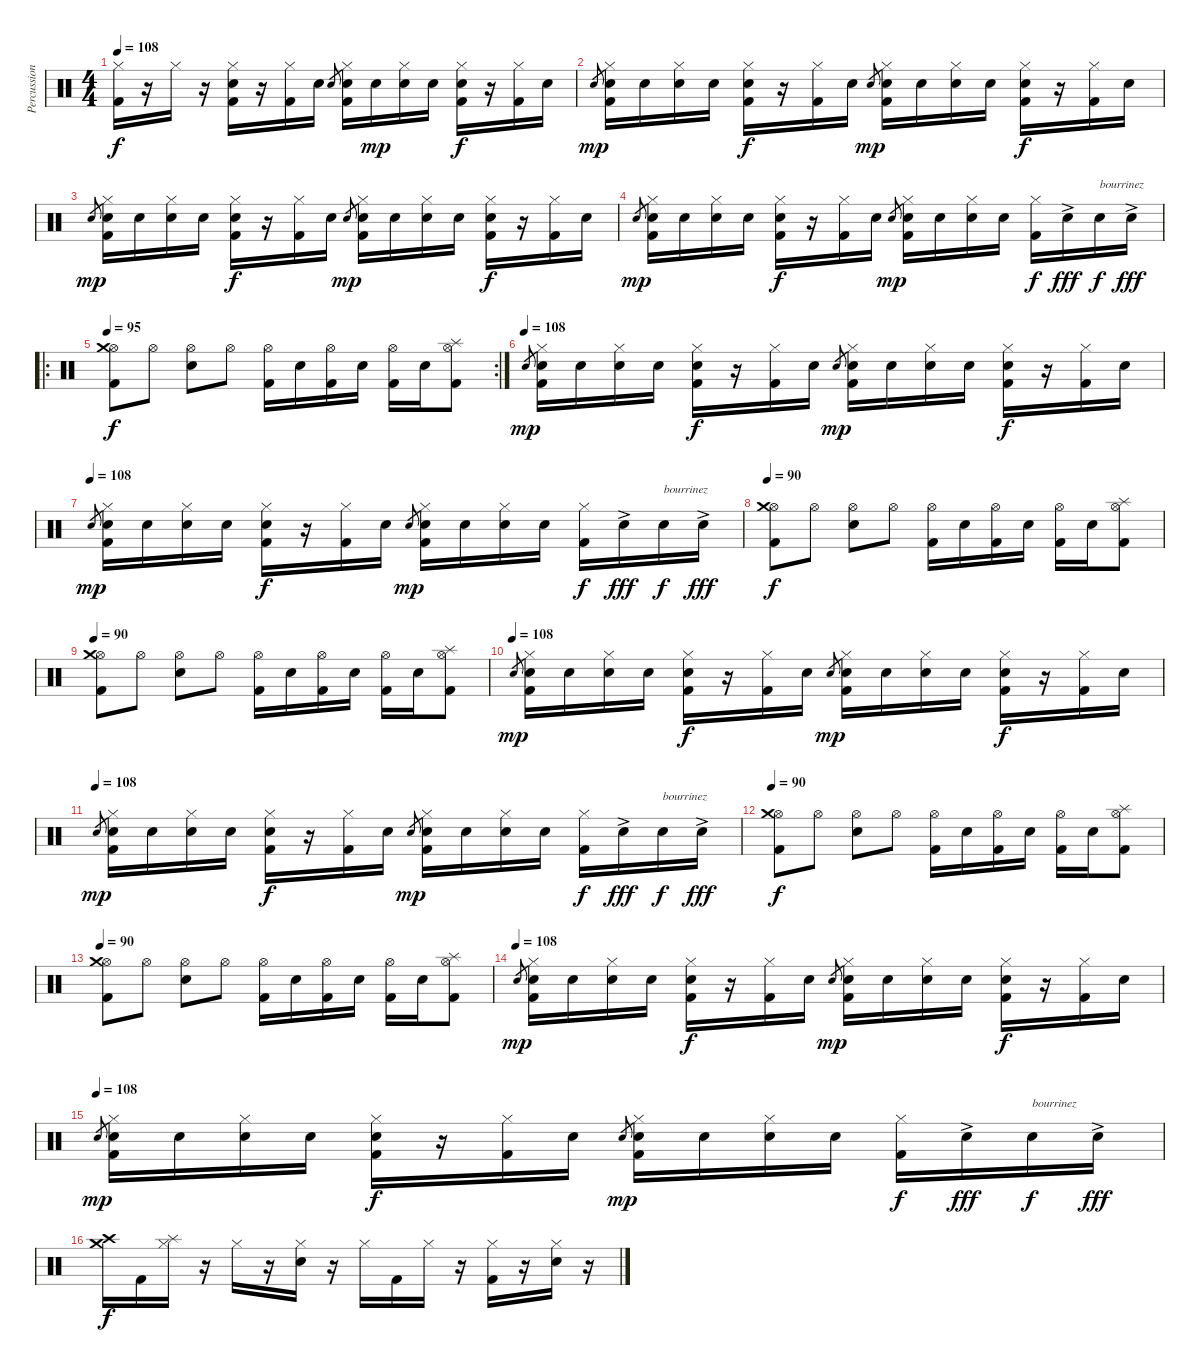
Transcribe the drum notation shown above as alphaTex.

\track ("Percussions" "Percussion") {instrument percussion}
\staff {score}
\articulation defaults
\ts (4 4)
\tempo 108
\clef neutral
\ks c
("Hi-Hat (closed)" "Kick (hit) 2").16{dy f} r.16 "Hi-Hat (closed)".16 r.16 ("Hi-Hat (closed)" "Electric Snare (hit)" "Kick (hit) 2").16 r.16 ("Hi-Hat (closed)" "Kick (hit) 2").16 "Electric Snare (hit)".16 "Electric Snare (hit)".8{gr} ("Hi-Hat (closed)" "Electric Snare (hit)" "Kick (hit) 2").16 "Electric Snare (hit)".16{dy mp} ("Hi-Hat (closed)" "Electric Snare (hit)").16 "Electric Snare (hit)".16 ("Hi-Hat (closed)" "Electric Snare (hit)" "Kick (hit) 2").16{dy f} r.16 ("Hi-Hat (closed)" "Kick (hit) 2").16 "Electric Snare (hit)".16 |
"Electric Snare (hit)".8{gr dy mp} ("Hi-Hat (closed)" "Electric Snare (hit)" "Kick (hit) 2").16 "Electric Snare (hit)".16 ("Hi-Hat (closed)" "Electric Snare (hit)").16 "Electric Snare (hit)".16 ("Hi-Hat (closed)" "Electric Snare (hit)" "Kick (hit) 2").16{dy f} r.16 ("Hi-Hat (closed)" "Kick (hit) 2").16 "Electric Snare (hit)".16 "Electric Snare (hit)".8{gr dy mp} ("Hi-Hat (closed)" "Electric Snare (hit)" "Kick (hit) 2").16 "Electric Snare (hit)".16 ("Hi-Hat (closed)" "Electric Snare (hit)").16 "Electric Snare (hit)".16 ("Hi-Hat (closed)" "Electric Snare (hit)" "Kick (hit) 2").16{dy f} r.16 ("Hi-Hat (closed)" "Kick (hit) 2").16 "Electric Snare (hit)".16 |
"Electric Snare (hit)".8{gr dy mp} ("Hi-Hat (closed)" "Electric Snare (hit)" "Kick (hit) 2").16 "Electric Snare (hit)".16 ("Hi-Hat (closed)" "Electric Snare (hit)").16 "Electric Snare (hit)".16 ("Hi-Hat (closed)" "Electric Snare (hit)" "Kick (hit) 2").16{dy f} r.16 ("Hi-Hat (closed)" "Kick (hit) 2").16 "Electric Snare (hit)".16 "Electric Snare (hit)".8{gr dy mp} ("Hi-Hat (closed)" "Electric Snare (hit)" "Kick (hit) 2").16 "Electric Snare (hit)".16 ("Hi-Hat (closed)" "Electric Snare (hit)").16 "Electric Snare (hit)".16 ("Hi-Hat (closed)" "Electric Snare (hit)" "Kick (hit) 2").16{dy f} r.16 ("Hi-Hat (closed)" "Kick (hit) 2").16 "Electric Snare (hit)".16 |
"Electric Snare (hit)".8{gr dy mp} ("Hi-Hat (closed)" "Electric Snare (hit)" "Kick (hit) 2").16 "Electric Snare (hit)".16 ("Hi-Hat (closed)" "Electric Snare (hit)").16 "Electric Snare (hit)".16 ("Hi-Hat (closed)" "Electric Snare (hit)" "Kick (hit) 2").16{dy f} r.16 ("Hi-Hat (closed)" "Kick (hit) 2").16 "Electric Snare (hit)".16 "Electric Snare (hit)".8{gr dy mp} ("Hi-Hat (closed)" "Electric Snare (hit)" "Kick (hit) 2").16 "Electric Snare (hit)".16 ("Hi-Hat (closed)" "Electric Snare (hit)").16 "Electric Snare (hit)".16 ("Hi-Hat (closed)" "Kick (hit) 2").16{dy f} "Electric Snare (hit)"{ac}.16{dy fff volume 16} "Electric Snare (hit)".16{txt "bourrinez" dy f} "Electric Snare (hit)"{ac}.16{dy fff} |
\ro
\rc 2
\tempo 95
("Hi-Hat (open)" "Crash medium (hit)" "Kick (hit) 2").8{dy f volume 7} "Hi-Hat (open)".8 ("Hi-Hat (open)" "Electric Snare (hit)").8 "Hi-Hat (open)".8 ("Hi-Hat (open)" "Kick (hit) 2").16 "Electric Snare (hit)".16 ("Hi-Hat (open)" "Kick (hit) 2").16 "Electric Snare (hit)".16 ("Hi-Hat (open)" "Kick (hit) 2").16 "Electric Snare (hit)".16 ("Hi-Hat (open)" "Splash (hit)" "Kick (hit) 2").8 |
\tempo (108)
"Electric Snare (hit)".8{gr dy mp} ("Hi-Hat (closed)" "Electric Snare (hit)" "Kick (hit) 2").16 "Electric Snare (hit)".16 ("Hi-Hat (closed)" "Electric Snare (hit)").16 "Electric Snare (hit)".16 ("Hi-Hat (closed)" "Electric Snare (hit)" "Kick (hit) 2").16{dy f} r.16 ("Hi-Hat (closed)" "Kick (hit) 2").16 "Electric Snare (hit)".16 "Electric Snare (hit)".8{gr dy mp} ("Hi-Hat (closed)" "Electric Snare (hit)" "Kick (hit) 2").16 "Electric Snare (hit)".16 ("Hi-Hat (closed)" "Electric Snare (hit)").16 "Electric Snare (hit)".16 ("Hi-Hat (closed)" "Electric Snare (hit)" "Kick (hit) 2").16{dy f} r.16 ("Hi-Hat (closed)" "Kick (hit) 2").16 "Electric Snare (hit)".16 |
\tempo (108)
"Electric Snare (hit)".8{gr dy mp} ("Hi-Hat (closed)" "Electric Snare (hit)" "Kick (hit) 2").16 "Electric Snare (hit)".16 ("Hi-Hat (closed)" "Electric Snare (hit)").16 "Electric Snare (hit)".16 ("Hi-Hat (closed)" "Electric Snare (hit)" "Kick (hit) 2").16{dy f} r.16 ("Hi-Hat (closed)" "Kick (hit) 2").16 "Electric Snare (hit)".16 "Electric Snare (hit)".8{gr dy mp} ("Hi-Hat (closed)" "Electric Snare (hit)" "Kick (hit) 2").16 "Electric Snare (hit)".16 ("Hi-Hat (closed)" "Electric Snare (hit)").16 "Electric Snare (hit)".16 ("Hi-Hat (closed)" "Kick (hit) 2").16{dy f} "Electric Snare (hit)"{ac}.16{dy fff volume 16} "Electric Snare (hit)".16{txt "bourrinez" dy f} "Electric Snare (hit)"{ac}.16{dy fff} |
\tempo 90
("Hi-Hat (open)" "Crash medium (hit)" "Kick (hit) 2").8{dy f volume 7} "Hi-Hat (open)".8 ("Hi-Hat (open)" "Electric Snare (hit)").8 "Hi-Hat (open)".8 ("Hi-Hat (open)" "Kick (hit) 2").16 "Electric Snare (hit)".16 ("Hi-Hat (open)" "Kick (hit) 2").16 "Electric Snare (hit)".16 ("Hi-Hat (open)" "Kick (hit) 2").16 "Electric Snare (hit)".16 ("Hi-Hat (open)" "Splash (hit)" "Kick (hit) 2").8 |
\tempo 90
("Hi-Hat (open)" "Crash medium (hit)" "Kick (hit) 2").8{volume 7} "Hi-Hat (open)".8 ("Hi-Hat (open)" "Electric Snare (hit)").8 "Hi-Hat (open)".8 ("Hi-Hat (open)" "Kick (hit) 2").16 "Electric Snare (hit)".16 ("Hi-Hat (open)" "Kick (hit) 2").16 "Electric Snare (hit)".16 ("Hi-Hat (open)" "Kick (hit) 2").16 "Electric Snare (hit)".16 ("Hi-Hat (open)" "Splash (hit)" "Kick (hit) 2").8 |
\tempo (108)
"Electric Snare (hit)".8{gr dy mp} ("Hi-Hat (closed)" "Electric Snare (hit)" "Kick (hit) 2").16 "Electric Snare (hit)".16 ("Hi-Hat (closed)" "Electric Snare (hit)").16 "Electric Snare (hit)".16 ("Hi-Hat (closed)" "Electric Snare (hit)" "Kick (hit) 2").16{dy f} r.16 ("Hi-Hat (closed)" "Kick (hit) 2").16 "Electric Snare (hit)".16 "Electric Snare (hit)".8{gr dy mp} ("Hi-Hat (closed)" "Electric Snare (hit)" "Kick (hit) 2").16 "Electric Snare (hit)".16 ("Hi-Hat (closed)" "Electric Snare (hit)").16 "Electric Snare (hit)".16 ("Hi-Hat (closed)" "Electric Snare (hit)" "Kick (hit) 2").16{dy f} r.16 ("Hi-Hat (closed)" "Kick (hit) 2").16 "Electric Snare (hit)".16 |
\tempo (108)
"Electric Snare (hit)".8{gr dy mp} ("Hi-Hat (closed)" "Electric Snare (hit)" "Kick (hit) 2").16 "Electric Snare (hit)".16 ("Hi-Hat (closed)" "Electric Snare (hit)").16 "Electric Snare (hit)".16 ("Hi-Hat (closed)" "Electric Snare (hit)" "Kick (hit) 2").16{dy f} r.16 ("Hi-Hat (closed)" "Kick (hit) 2").16 "Electric Snare (hit)".16 "Electric Snare (hit)".8{gr dy mp} ("Hi-Hat (closed)" "Electric Snare (hit)" "Kick (hit) 2").16 "Electric Snare (hit)".16 ("Hi-Hat (closed)" "Electric Snare (hit)").16 "Electric Snare (hit)".16 ("Hi-Hat (closed)" "Kick (hit) 2").16{dy f} "Electric Snare (hit)"{ac}.16{dy fff volume 16} "Electric Snare (hit)".16{txt "bourrinez" dy f} "Electric Snare (hit)"{ac}.16{dy fff} |
\tempo 90
("Hi-Hat (open)" "Crash medium (hit)" "Kick (hit) 2").8{dy f volume 7} "Hi-Hat (open)".8 ("Hi-Hat (open)" "Electric Snare (hit)").8 "Hi-Hat (open)".8 ("Hi-Hat (open)" "Kick (hit) 2").16 "Electric Snare (hit)".16 ("Hi-Hat (open)" "Kick (hit) 2").16 "Electric Snare (hit)".16 ("Hi-Hat (open)" "Kick (hit) 2").16 "Electric Snare (hit)".16 ("Hi-Hat (open)" "Splash (hit)" "Kick (hit) 2").8 |
\tempo 90
("Hi-Hat (open)" "Crash medium (hit)" "Kick (hit) 2").8{volume 7} "Hi-Hat (open)".8 ("Hi-Hat (open)" "Electric Snare (hit)").8 "Hi-Hat (open)".8 ("Hi-Hat (open)" "Kick (hit) 2").16 "Electric Snare (hit)".16 ("Hi-Hat (open)" "Kick (hit) 2").16 "Electric Snare (hit)".16 ("Hi-Hat (open)" "Kick (hit) 2").16 "Electric Snare (hit)".16 ("Hi-Hat (open)" "Splash (hit)" "Kick (hit) 2").8 |
\tempo (108)
"Electric Snare (hit)".8{gr dy mp} ("Hi-Hat (closed)" "Electric Snare (hit)" "Kick (hit) 2").16 "Electric Snare (hit)".16 ("Hi-Hat (closed)" "Electric Snare (hit)").16 "Electric Snare (hit)".16 ("Hi-Hat (closed)" "Electric Snare (hit)" "Kick (hit) 2").16{dy f} r.16 ("Hi-Hat (closed)" "Kick (hit) 2").16 "Electric Snare (hit)".16 "Electric Snare (hit)".8{gr dy mp} ("Hi-Hat (closed)" "Electric Snare (hit)" "Kick (hit) 2").16 "Electric Snare (hit)".16 ("Hi-Hat (closed)" "Electric Snare (hit)").16 "Electric Snare (hit)".16 ("Hi-Hat (closed)" "Electric Snare (hit)" "Kick (hit) 2").16{dy f} r.16 ("Hi-Hat (closed)" "Kick (hit) 2").16 "Electric Snare (hit)".16 |
\tempo (108)
"Electric Snare (hit)".8{gr dy mp} ("Hi-Hat (closed)" "Electric Snare (hit)" "Kick (hit) 2").16 "Electric Snare (hit)".16 ("Hi-Hat (closed)" "Electric Snare (hit)").16 "Electric Snare (hit)".16 ("Hi-Hat (closed)" "Electric Snare (hit)" "Kick (hit) 2").16{dy f} r.16 ("Hi-Hat (closed)" "Kick (hit) 2").16 "Electric Snare (hit)".16 "Electric Snare (hit)".8{gr dy mp} ("Hi-Hat (closed)" "Electric Snare (hit)" "Kick (hit) 2").16 "Electric Snare (hit)".16 ("Hi-Hat (closed)" "Electric Snare (hit)").16 "Electric Snare (hit)".16 ("Hi-Hat (closed)" "Kick (hit) 2").16{dy f} "Electric Snare (hit)"{ac}.16{dy fff volume 16} "Electric Snare (hit)".16{txt "bourrinez" dy f} "Electric Snare (hit)"{ac}.16{dy fff} |
("Crash medium (hit)" "Crash high (hit)").16{dy f} "Kick (hit) 2".16 ("Hi-Hat (closed)" "Splash (hit)").16 r.16 "Hi-Hat (closed)".16 r.16 ("Hi-Hat (closed)" "Electric Snare (hit)").16 r.16 "Hi-Hat (closed)".16 "Kick (hit) 2".16 "Hi-Hat (closed)".16 r.16 ("Hi-Hat (closed)" "Kick (hit) 2").16 r.16 ("Hi-Hat (closed)" "Electric Snare (hit)").16 r.16
